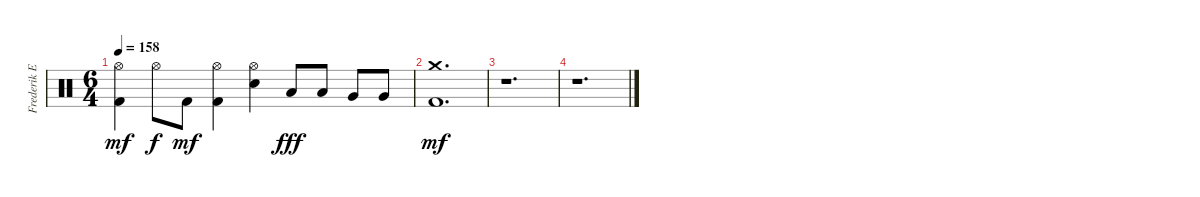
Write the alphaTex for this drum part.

\track ("Frederik Ehmke" "Frederik E") {instrument percussion}
\staff {score}
\articulation defaults
\ts (6 4)
\tempo 158
\clef neutral
\ks c
("Hi-Hat (open)" "Kick (hit) 2").4{dy mf} "Hi-Hat (open)".8{dy f} "Kick (hit) 2".8{dy mf} ("Hi-Hat (open)" "Kick (hit) 2").4 ("Hi-Hat (open)" "Electric Snare (hit)").4 "Low Tom (hit)".8{dy fff} "Low Tom (hit)".8 "Very Low Tom (hit)".8 "Very Low Tom (hit)".8 |
("Crash medium (hit)" "Kick (hit) 2").1{d dy mf} |
r.1{d} |
r.1{d}
